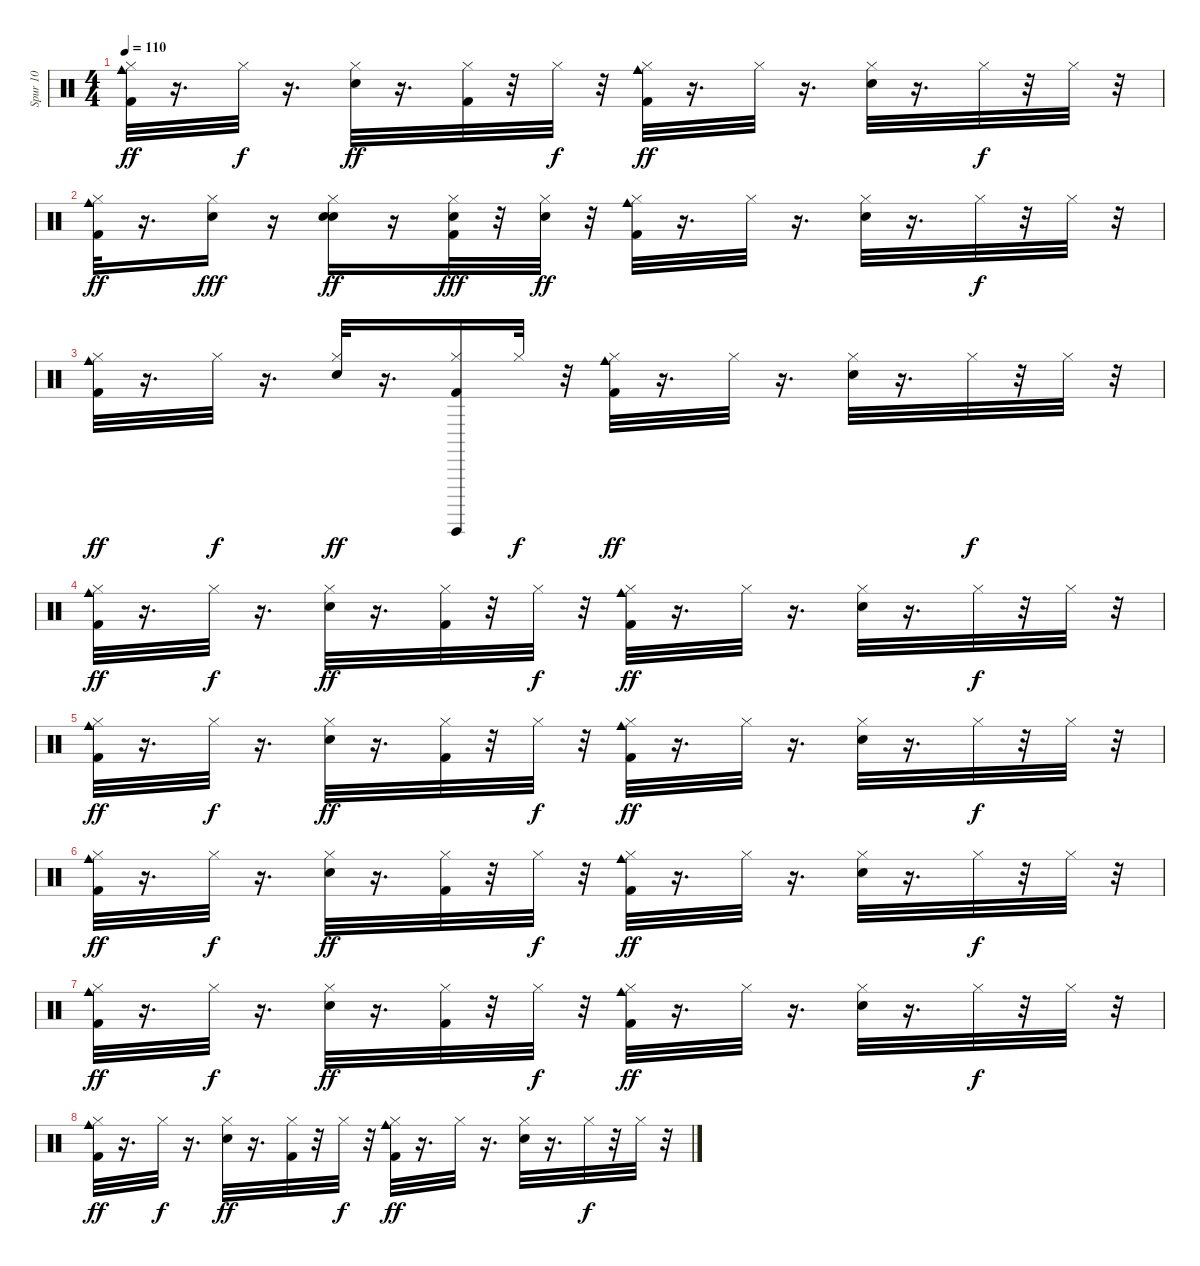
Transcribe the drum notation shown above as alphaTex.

\track ("Spur 10" "Spur 10") {instrument percussion}
\staff {score}
\articulation defaults
\ts (4 4)
\tempo 110
\clef neutral
\ks c
("Kick (hit) 2" "Cowbell medium (hit)" "Hi-Hat (closed)").32{dy ff} r.16{d} "Hi-Hat (closed)".32{dy f} r.16{d} ("Snare (hit) 2" "Hi-Hat (closed)").32{dy ff} r.16{d} ("Kick (hit) 2" "Hi-Hat (closed)").32 r.32 "Hi-Hat (closed)".32{dy f} r.32 ("Kick (hit) 2" "Cowbell medium (hit)" "Hi-Hat (closed)").32{dy ff} r.16{d} "Hi-Hat (closed)".32 r.16{d} ("Snare (hit) 2" "Hi-Hat (closed)").32 r.16{d} "Hi-Hat (closed)".32{dy f} r.32 "Hi-Hat (closed)".32 r.32 |
("Kick (hit) 2" "Cowbell medium (hit)" "Hi-Hat (closed)").32{dy ff} r.16{d} ("Hi-Hat (closed)" "Hand Clap (hit)").16{dy fff} r.16 ("Snare (hit) 2" "Hand Clap (hit)" "Hi-Hat (closed)").16{dy ff} r.16 ("Kick (hit) 2" "Hi-Hat (closed)" "Hand Clap (hit)").32{dy fff} r.32 ("Hand Clap (hit)" "Hi-Hat (closed)").32{dy ff} r.32 ("Kick (hit) 2" "Cowbell medium (hit)" "Hi-Hat (closed)").32 r.16{d} "Hi-Hat (closed)".32 r.16{d} ("Snare (hit) 2" "Hi-Hat (closed)").32 r.16{d} "Hi-Hat (closed)".32{dy f} r.32 "Hi-Hat (closed)".32 r.32 |
("Kick (hit) 2" "Cowbell medium (hit)" "Hi-Hat (closed)").32{dy ff} r.16{d} "Hi-Hat (closed)".32{dy f} r.16{d} ("Snare (hit) 2" "Hi-Hat (closed)").32{dy ff} r.16{d} ("Kick (hit) 2" "Hi-Hat (closed)" "Guiro (hit)").16 "Hi-Hat (closed)".32{dy f} r.32 ("Kick (hit) 2" "Cowbell medium (hit)" "Hi-Hat (closed)").32{dy ff} r.16{d} "Hi-Hat (closed)".32 r.16{d} ("Snare (hit) 2" "Hi-Hat (closed)").32 r.16{d} "Hi-Hat (closed)".32{dy f} r.32 "Hi-Hat (closed)".32 r.32 |
("Kick (hit) 2" "Cowbell medium (hit)" "Hi-Hat (closed)").32{dy ff} r.16{d} "Hi-Hat (closed)".32{dy f} r.16{d} ("Snare (hit) 2" "Hi-Hat (closed)").32{dy ff} r.16{d} ("Kick (hit) 2" "Hi-Hat (closed)").32 r.32 "Hi-Hat (closed)".32{dy f} r.32 ("Kick (hit) 2" "Cowbell medium (hit)" "Hi-Hat (closed)").32{dy ff} r.16{d} "Hi-Hat (closed)".32 r.16{d} ("Snare (hit) 2" "Hi-Hat (closed)").32 r.16{d} "Hi-Hat (closed)".32{dy f} r.32 "Hi-Hat (closed)".32 r.32 |
("Kick (hit) 2" "Cowbell medium (hit)" "Hi-Hat (closed)").32{dy ff} r.16{d} "Hi-Hat (closed)".32{dy f} r.16{d} ("Snare (hit) 2" "Hi-Hat (closed)").32{dy ff} r.16{d} ("Kick (hit) 2" "Hi-Hat (closed)").32 r.32 "Hi-Hat (closed)".32{dy f} r.32 ("Kick (hit) 2" "Cowbell medium (hit)" "Hi-Hat (closed)").32{dy ff} r.16{d} "Hi-Hat (closed)".32 r.16{d} ("Snare (hit) 2" "Hi-Hat (closed)").32 r.16{d} "Hi-Hat (closed)".32{dy f} r.32 "Hi-Hat (closed)".32 r.32 |
("Kick (hit) 2" "Cowbell medium (hit)" "Hi-Hat (closed)").32{dy ff} r.16{d} "Hi-Hat (closed)".32{dy f} r.16{d} ("Snare (hit) 2" "Hi-Hat (closed)").32{dy ff} r.16{d} ("Kick (hit) 2" "Hi-Hat (closed)").32 r.32 "Hi-Hat (closed)".32{dy f} r.32 ("Kick (hit) 2" "Cowbell medium (hit)" "Hi-Hat (closed)").32{dy ff} r.16{d} "Hi-Hat (closed)".32 r.16{d} ("Snare (hit) 2" "Hi-Hat (closed)").32 r.16{d} "Hi-Hat (closed)".32{dy f} r.32 "Hi-Hat (closed)".32 r.32 |
("Kick (hit) 2" "Cowbell medium (hit)" "Hi-Hat (closed)").32{dy ff} r.16{d} "Hi-Hat (closed)".32{dy f} r.16{d} ("Snare (hit) 2" "Hi-Hat (closed)").32{dy ff} r.16{d} ("Kick (hit) 2" "Hi-Hat (closed)").32 r.32 "Hi-Hat (closed)".32{dy f} r.32 ("Kick (hit) 2" "Cowbell medium (hit)" "Hi-Hat (closed)").32{dy ff} r.16{d} "Hi-Hat (closed)".32 r.16{d} ("Snare (hit) 2" "Hi-Hat (closed)").32 r.16{d} "Hi-Hat (closed)".32{dy f} r.32 "Hi-Hat (closed)".32 r.32 |
("Kick (hit) 2" "Cowbell medium (hit)" "Hi-Hat (closed)").32{dy ff} r.16{d} "Hi-Hat (closed)".32{dy f} r.16{d} ("Snare (hit) 2" "Hi-Hat (closed)").32{dy ff} r.16{d} ("Kick (hit) 2" "Hi-Hat (closed)").32 r.32 "Hi-Hat (closed)".32{dy f} r.32 ("Kick (hit) 2" "Cowbell medium (hit)" "Hi-Hat (closed)").32{dy ff} r.16{d} "Hi-Hat (closed)".32 r.16{d} ("Snare (hit) 2" "Hi-Hat (closed)").32 r.16{d} "Hi-Hat (closed)".32{dy f} r.32 "Hi-Hat (closed)".32 r.32
